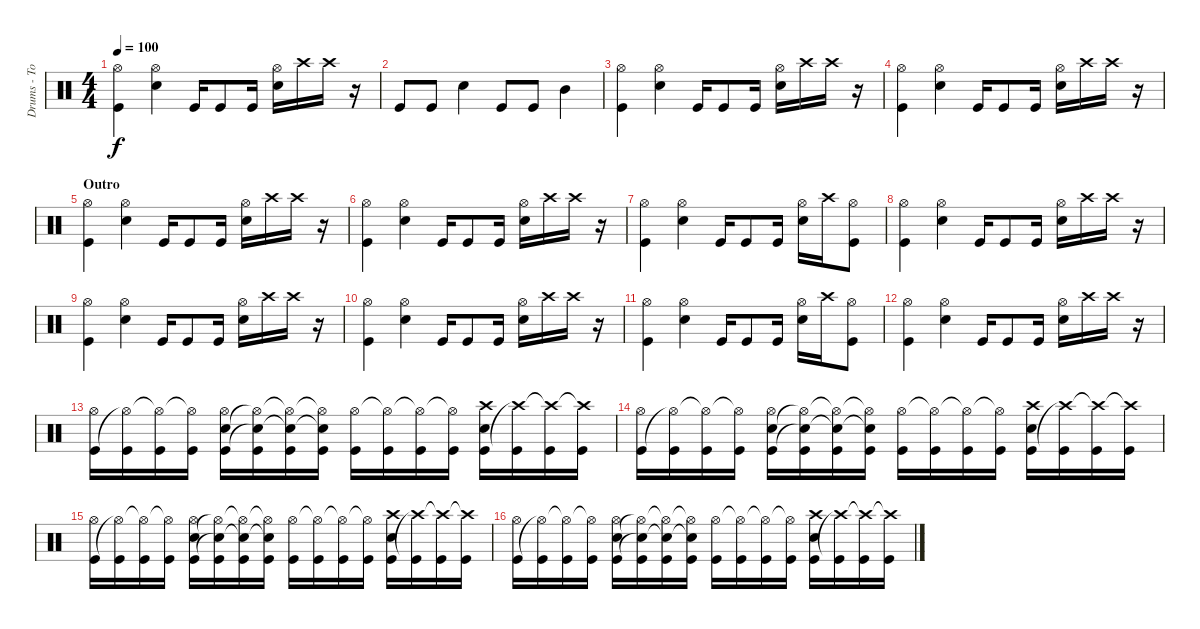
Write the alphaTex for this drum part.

\track ("Drums - Tommy" "Drums - To") {instrument percussion}
\staff {score}
\articulation defaults
\ts (4 4)
\tempo 100
\clef neutral
\ks c
("Hi-Hat (open)" "Kick (hit)").4{dy f} ("Hi-Hat (open)" "Snare (hit) 2").4 "Kick (hit)".16 "Kick (hit)".8 "Kick (hit)".16 ("Hi-Hat (open)" "Snare (hit) 2").16 "Crash high (hit)".16 "Crash high (hit)".16 r.16 |
"Kick (hit)".8 "Kick (hit)".8 "Snare (hit) 2".4 "Kick (hit)".8 "Kick (hit)".8 "Mid Tom (hit)".4 |
("Hi-Hat (open)" "Kick (hit)").4 ("Hi-Hat (open)" "Snare (hit) 2").4 "Kick (hit)".16 "Kick (hit)".8 "Kick (hit)".16 ("Hi-Hat (open)" "Snare (hit) 2").16 "Crash high (hit)".16 "Crash high (hit)".16 r.16 |
("Hi-Hat (open)" "Kick (hit)").4 ("Hi-Hat (open)" "Snare (hit) 2").4 "Kick (hit)".16 "Kick (hit)".8 "Kick (hit)".16 ("Hi-Hat (open)" "Snare (hit) 2").16 "Crash high (hit)".16 "Crash high (hit)".16 r.16 |
\section ("" "Outro")
("Hi-Hat (open)" "Kick (hit)").4 ("Hi-Hat (open)" "Snare (hit) 2").4 "Kick (hit)".16 "Kick (hit)".8 "Kick (hit)".16 ("Hi-Hat (open)" "Snare (hit) 2").16 "Crash high (hit)".16 "Crash high (hit)".16 r.16 |
("Hi-Hat (open)" "Kick (hit)").4 ("Hi-Hat (open)" "Snare (hit) 2").4 "Kick (hit)".16 "Kick (hit)".8 "Kick (hit)".16 ("Hi-Hat (open)" "Snare (hit) 2").16 "Crash high (hit)".16 "Crash high (hit)".16 r.16 |
("Hi-Hat (open)" "Kick (hit)").4 ("Hi-Hat (open)" "Snare (hit) 2").4 "Kick (hit)".16 "Kick (hit)".8 "Kick (hit)".16 ("Hi-Hat (open)" "Snare (hit) 2").16 "Crash high (hit)".16 ("Hi-Hat (open)" "Kick (hit)").8 |
("Hi-Hat (open)" "Kick (hit)").4 ("Hi-Hat (open)" "Snare (hit) 2").4 "Kick (hit)".16 "Kick (hit)".8 "Kick (hit)".16 ("Hi-Hat (open)" "Snare (hit) 2").16 "Crash high (hit)".16 "Crash high (hit)".16 r.16 |
("Hi-Hat (open)" "Kick (hit)").4 ("Hi-Hat (open)" "Snare (hit) 2").4 "Kick (hit)".16 "Kick (hit)".8 "Kick (hit)".16 ("Hi-Hat (open)" "Snare (hit) 2").16 "Crash high (hit)".16 "Crash high (hit)".16 r.16 |
("Hi-Hat (open)" "Kick (hit)").4 ("Hi-Hat (open)" "Snare (hit) 2").4 "Kick (hit)".16 "Kick (hit)".8 "Kick (hit)".16 ("Hi-Hat (open)" "Snare (hit) 2").16 "Crash high (hit)".16 "Crash high (hit)".16 r.16 |
("Hi-Hat (open)" "Kick (hit)").4 ("Hi-Hat (open)" "Snare (hit) 2").4 "Kick (hit)".16 "Kick (hit)".8 "Kick (hit)".16 ("Hi-Hat (open)" "Snare (hit) 2").16 "Crash high (hit)".16 ("Hi-Hat (open)" "Kick (hit)").8 |
("Hi-Hat (open)" "Kick (hit)").4 ("Hi-Hat (open)" "Snare (hit) 2").4 "Kick (hit)".16 "Kick (hit)".8 "Kick (hit)".16 ("Hi-Hat (open)" "Snare (hit) 2").16 "Crash high (hit)".16 "Crash high (hit)".16 r.16 |
("Hi-Hat (open)" "Kick (hit)").16 ("Kick (hit)" "Hi-Hat (open)"{t}).16 ("Kick (hit)" "Hi-Hat (open)"{t}).16 ("Kick (hit)" "Hi-Hat (open)"{t}).16 ("Hi-Hat (open)" "Snare (hit) 2" "Kick (hit)").16 ("Kick (hit)" "Hi-Hat (open)"{t} "Snare (hit) 2"{t}).16 ("Kick (hit)" "Hi-Hat (open)"{t} "Snare (hit) 2"{t}).16 ("Kick (hit)" "Hi-Hat (open)"{t} "Snare (hit) 2"{t}).16 ("Kick (hit)" "Hi-Hat (open)").16 ("Kick (hit)" "Hi-Hat (open)"{t}).16 ("Kick (hit)" "Hi-Hat (open)"{t}).16 ("Kick (hit)" "Hi-Hat (open)"{t}).16 ("Snare (hit) 2" "Kick (hit)" "Crash high (hit)").16 ("Kick (hit)" "Crash high (hit)"{t}).16 ("Kick (hit)" "Crash high (hit)"{t}).16 ("Kick (hit)" "Crash high (hit)"{t}).16 |
("Hi-Hat (open)" "Kick (hit)").16 ("Kick (hit)" "Hi-Hat (open)"{t}).16 ("Kick (hit)" "Hi-Hat (open)"{t}).16 ("Kick (hit)" "Hi-Hat (open)"{t}).16 ("Hi-Hat (open)" "Snare (hit) 2" "Kick (hit)").16 ("Kick (hit)" "Hi-Hat (open)"{t} "Snare (hit) 2"{t}).16 ("Kick (hit)" "Hi-Hat (open)"{t} "Snare (hit) 2"{t}).16 ("Kick (hit)" "Hi-Hat (open)"{t} "Snare (hit) 2"{t}).16 ("Kick (hit)" "Hi-Hat (open)").16 ("Kick (hit)" "Hi-Hat (open)"{t}).16 ("Kick (hit)" "Hi-Hat (open)"{t}).16 ("Kick (hit)" "Hi-Hat (open)"{t}).16 ("Snare (hit) 2" "Kick (hit)" "Crash high (hit)").16 ("Kick (hit)" "Crash high (hit)"{t}).16 ("Kick (hit)" "Crash high (hit)"{t}).16 ("Kick (hit)" "Crash high (hit)"{t}).16 |
("Hi-Hat (open)" "Kick (hit)").16 ("Kick (hit)" "Hi-Hat (open)"{t}).16 ("Kick (hit)" "Hi-Hat (open)"{t}).16 ("Kick (hit)" "Hi-Hat (open)"{t}).16 ("Hi-Hat (open)" "Snare (hit) 2" "Kick (hit)").16 ("Kick (hit)" "Hi-Hat (open)"{t} "Snare (hit) 2"{t}).16 ("Kick (hit)" "Hi-Hat (open)"{t} "Snare (hit) 2"{t}).16 ("Kick (hit)" "Hi-Hat (open)"{t} "Snare (hit) 2"{t}).16 ("Kick (hit)" "Hi-Hat (open)").16 ("Kick (hit)" "Hi-Hat (open)"{t}).16 ("Kick (hit)" "Hi-Hat (open)"{t}).16 ("Kick (hit)" "Hi-Hat (open)"{t}).16 ("Snare (hit) 2" "Kick (hit)" "Crash high (hit)").16 ("Kick (hit)" "Crash high (hit)"{t}).16 ("Kick (hit)" "Crash high (hit)"{t}).16 ("Kick (hit)" "Crash high (hit)"{t}).16 |
("Hi-Hat (open)" "Kick (hit)").16 ("Kick (hit)" "Hi-Hat (open)"{t}).16 ("Kick (hit)" "Hi-Hat (open)"{t}).16 ("Kick (hit)" "Hi-Hat (open)"{t}).16 ("Hi-Hat (open)" "Snare (hit) 2" "Kick (hit)").16 ("Kick (hit)" "Hi-Hat (open)"{t} "Snare (hit) 2"{t}).16 ("Kick (hit)" "Hi-Hat (open)"{t} "Snare (hit) 2"{t}).16 ("Kick (hit)" "Hi-Hat (open)"{t} "Snare (hit) 2"{t}).16 ("Kick (hit)" "Hi-Hat (open)").16 ("Kick (hit)" "Hi-Hat (open)"{t}).16 ("Kick (hit)" "Hi-Hat (open)"{t}).16 ("Kick (hit)" "Hi-Hat (open)"{t}).16 ("Snare (hit) 2" "Kick (hit)" "Crash high (hit)").16 ("Kick (hit)" "Crash high (hit)"{t}).16 ("Kick (hit)" "Crash high (hit)"{t}).16 ("Kick (hit)" "Crash high (hit)"{t}).16
